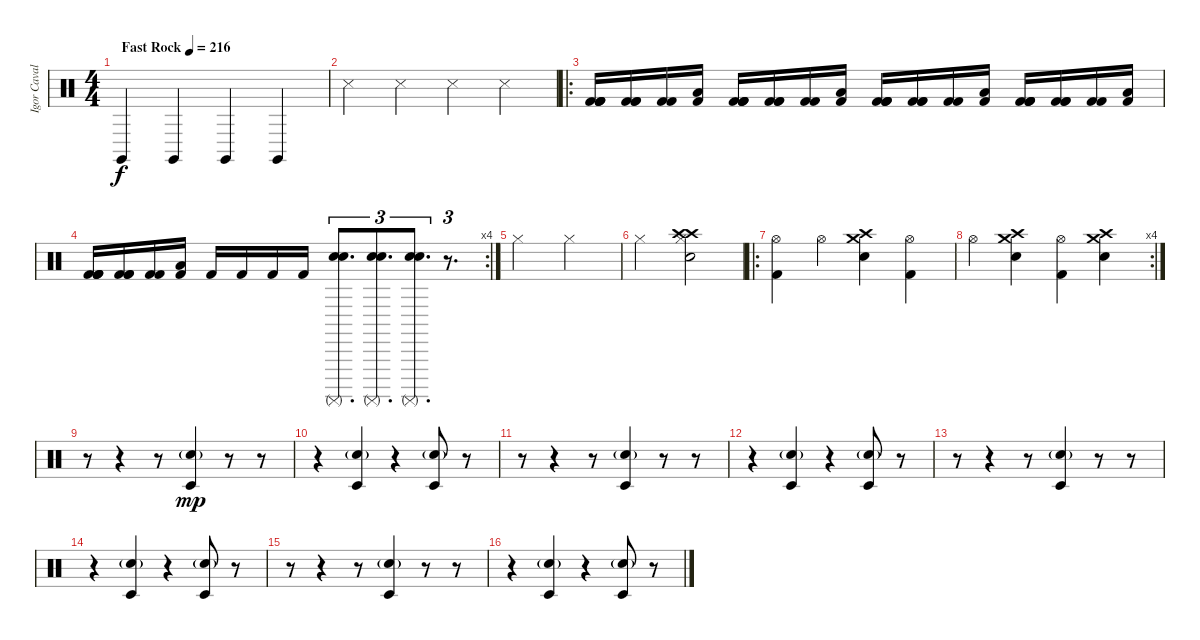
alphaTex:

\track ("Igor Cavalera" "Igor Caval") {instrument percussion}
\staff {score}
\articulation defaults
\ts (4 4)
\tempo (216 "Fast Rock")
\clef neutral
\ks c "Claves (hit)".4{dy f} "Claves (hit)".4 "Claves (hit)".4 "Claves (hit)".4
|
"Snare (side stick) 3".4 "Snare (side stick) 3".4 "Snare (side stick) 3".4 "Snare (side stick) 3".4 |
\ro
("Kick (hit) 2" "Kick (hit) 2" "Kick (hit) 2" "Kick (hit) 2").16 ("Kick (hit) 2" "Kick (hit) 2" "Kick (hit) 2").16 ("Kick (hit) 2" "Kick (hit) 2").16 ("Low Floor Tom (hit)" "Kick (hit) 2").16 ("Kick (hit) 2" "Kick (hit) 2" "Kick (hit) 2" "Kick (hit) 2").16 ("Kick (hit) 2" "Kick (hit) 2" "Kick (hit) 2").16 ("Kick (hit) 2" "Kick (hit) 2").16 ("Low Floor Tom (hit)" "Kick (hit) 2").16 ("Kick (hit) 2" "Kick (hit) 2" "Kick (hit) 2" "Kick (hit) 2").16 ("Kick (hit) 2" "Kick (hit) 2" "Kick (hit) 2").16 ("Kick (hit) 2" "Kick (hit) 2").16 ("Low Floor Tom (hit)" "Kick (hit) 2").16 ("Kick (hit) 2" "Kick (hit) 2" "Kick (hit) 2" "Kick (hit) 2").16 ("Kick (hit) 2" "Kick (hit) 2" "Kick (hit) 2").16 ("Kick (hit) 2" "Kick (hit) 2").16 ("Low Floor Tom (hit)" "Kick (hit) 2").16 |
\rc 4
("Kick (hit) 2" "Kick (hit) 2" "Kick (hit) 2" "Kick (hit) 2").16 ("Kick (hit) 2" "Kick (hit) 2" "Kick (hit) 2").16 ("Kick (hit) 2" "Kick (hit) 2").16 ("Low Floor Tom (hit)" "Kick (hit) 2").16 "Kick (hit) 2".16 "Kick (hit) 2".16 "Kick (hit) 2".16 "Kick (hit) 2".16 ("Snare (hit) 2" "Surdo (mute)" "Snare (hit) 2").8{d tu (3 2)} ("Snare (hit) 2" "Surdo (mute)" "Snare (hit) 2").8{d tu (3 2)} ("Snare (hit) 2" "Surdo (mute)" "Snare (hit) 2").8{d tu (3 2)} r.8{d tu (3 2)} |
"Hi-Hat (closed)".2 "Hi-Hat (closed)".2 |
"Hi-Hat (closed)".2 ("Crash high (hit)" "Crash high (hit)" "Snare (hit) 2" "Hi-Hat (closed)").2 |
\ro
("Kick (hit) 2" "Hi-Hat (open)").4 "Hi-Hat (open)".4 ("Snare (hit) 2" "Crash high (hit)" "Crash medium (hit)").4 ("Kick (hit) 2" "Hi-Hat (open)").4 |
\rc 4 "Hi-Hat (open)".4
("Snare (hit) 2" "Crash high (hit)" "Crash medium (hit)").4 ("Kick (hit) 2" "Hi-Hat (open)").4 ("Snare (hit) 2" "Crash high (hit)" "Crash medium (hit)").4 |
r.8 r.4 r.8 ("Timbale low (hit)" "Snare (hit) 2"{g}).4{dy mp} r.8 r.8 |
r.4 ("Timbale low (hit)" "Snare (hit) 2"{g}).4 r.4 ("Timbale low (hit)" "Snare (hit) 2"{g}).8 r.8 |
r.8 r.4 r.8 ("Timbale low (hit)" "Snare (hit) 2"{g}).4 r.8 r.8 |
r.4 ("Timbale low (hit)" "Snare (hit) 2"{g}).4 r.4 ("Timbale low (hit)" "Snare (hit) 2"{g}).8 r.8 |
r.8 r.4 r.8 ("Timbale low (hit)" "Snare (hit) 2"{g}).4 r.8 r.8 |
r.4 ("Timbale low (hit)" "Snare (hit) 2"{g}).4 r.4 ("Timbale low (hit)" "Snare (hit) 2"{g}).8 r.8 |
r.8 r.4 r.8 ("Timbale low (hit)" "Snare (hit) 2"{g}).4 r.8 r.8 |
r.4 ("Timbale low (hit)" "Snare (hit) 2"{g}).4 r.4 ("Timbale low (hit)" "Snare (hit) 2"{g}).8 r.8
